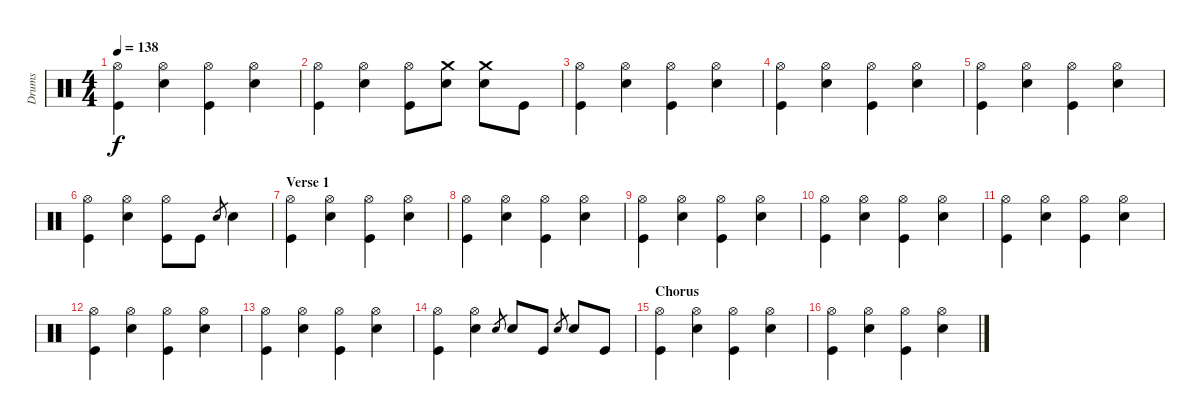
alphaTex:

\track ("Drums" "Drums") {instrument percussion}
\staff {score}
\articulation defaults
\ts (4 4)
\tempo 138
\clef neutral
\ks c
("Hi-Hat (open)" "Kick (hit)").4{dy f} ("Hi-Hat (open)" "Electric Snare (hit)").4 ("Hi-Hat (open)" "Kick (hit)").4 ("Hi-Hat (open)" "Electric Snare (hit)").4 |
("Hi-Hat (open)" "Kick (hit)").4 ("Hi-Hat (open)" "Electric Snare (hit)").4 ("Hi-Hat (open)" "Kick (hit)").8 ("Crash medium (hit)" "Electric Snare (hit)").8 ("Crash medium (hit)" "Electric Snare (hit)").8 "Kick (hit)".8 |
("Hi-Hat (open)" "Kick (hit)").4 ("Hi-Hat (open)" "Electric Snare (hit)").4 ("Hi-Hat (open)" "Kick (hit)").4 ("Hi-Hat (open)" "Electric Snare (hit)").4 |
("Hi-Hat (open)" "Kick (hit)").4 ("Hi-Hat (open)" "Electric Snare (hit)").4 ("Hi-Hat (open)" "Kick (hit)").4 ("Hi-Hat (open)" "Electric Snare (hit)").4 |
("Hi-Hat (open)" "Kick (hit)").4 ("Hi-Hat (open)" "Electric Snare (hit)").4 ("Hi-Hat (open)" "Kick (hit)").4 ("Hi-Hat (open)" "Electric Snare (hit)").4 |
("Hi-Hat (open)" "Kick (hit)").4 ("Hi-Hat (open)" "Electric Snare (hit)").4 ("Hi-Hat (open)" "Kick (hit)").8 "Kick (hit)".8 "Electric Snare (hit)".8{gr} "Electric Snare (hit)".4 |
\section ("" "Verse 1")
("Hi-Hat (open)" "Kick (hit)").4 ("Hi-Hat (open)" "Electric Snare (hit)").4 ("Hi-Hat (open)" "Kick (hit)").4 ("Hi-Hat (open)" "Electric Snare (hit)").4 |
("Hi-Hat (open)" "Kick (hit)").4 ("Hi-Hat (open)" "Electric Snare (hit)").4 ("Hi-Hat (open)" "Kick (hit)").4 ("Hi-Hat (open)" "Electric Snare (hit)").4 |
("Hi-Hat (open)" "Kick (hit)").4 ("Hi-Hat (open)" "Electric Snare (hit)").4 ("Hi-Hat (open)" "Kick (hit)").4 ("Hi-Hat (open)" "Electric Snare (hit)").4 |
("Hi-Hat (open)" "Kick (hit)").4 ("Hi-Hat (open)" "Electric Snare (hit)").4 ("Hi-Hat (open)" "Kick (hit)").4 ("Hi-Hat (open)" "Electric Snare (hit)").4 |
("Hi-Hat (open)" "Kick (hit)").4 ("Hi-Hat (open)" "Electric Snare (hit)").4 ("Hi-Hat (open)" "Kick (hit)").4 ("Hi-Hat (open)" "Electric Snare (hit)").4 |
("Hi-Hat (open)" "Kick (hit)").4 ("Hi-Hat (open)" "Electric Snare (hit)").4 ("Hi-Hat (open)" "Kick (hit)").4 ("Hi-Hat (open)" "Electric Snare (hit)").4 |
("Hi-Hat (open)" "Kick (hit)").4 ("Hi-Hat (open)" "Electric Snare (hit)").4 ("Hi-Hat (open)" "Kick (hit)").4 ("Hi-Hat (open)" "Electric Snare (hit)").4 |
("Hi-Hat (open)" "Kick (hit)").4 ("Hi-Hat (open)" "Electric Snare (hit)").4 "Electric Snare (hit)".8{gr} "Electric Snare (hit)".8 "Kick (hit)".8 "Electric Snare (hit)".8{gr} "Electric Snare (hit)".8 "Kick (hit)".8 |
\section ("" "Chorus")
("Hi-Hat (open)" "Kick (hit)").4 ("Hi-Hat (open)" "Electric Snare (hit)").4 ("Hi-Hat (open)" "Kick (hit)").4 ("Hi-Hat (open)" "Electric Snare (hit)").4 |
("Hi-Hat (open)" "Kick (hit)").4 ("Hi-Hat (open)" "Electric Snare (hit)").4 ("Hi-Hat (open)" "Kick (hit)").4 ("Hi-Hat (open)" "Electric Snare (hit)").4
